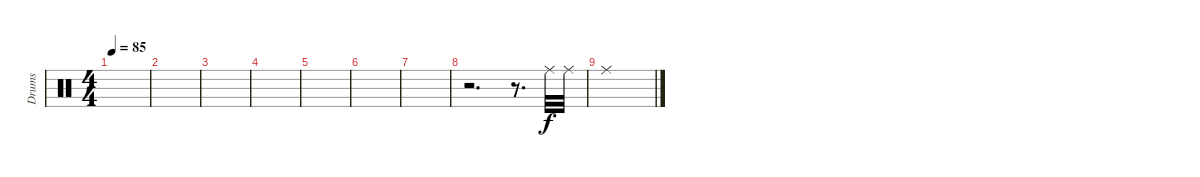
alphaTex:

\track ("Drums" "Drums") {instrument percussion}
\staff {score}
\articulation defaults
\ts (4 4)
\tempo 85
\clef neutral
\ks c
|
|
|
|
|
|
|
r.2{d} r.8{d} "Ride (middle)".32 "Ride (middle)".32 |
"Ride (middle)".1
